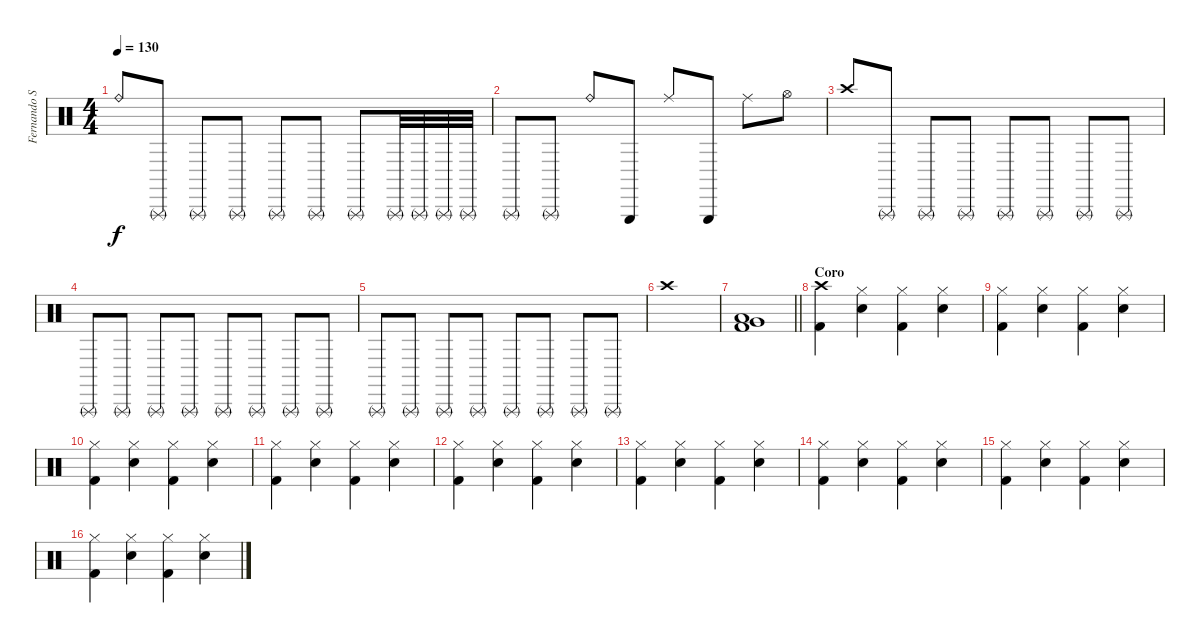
\track ("Fernando Scarcella" "Fernando S") {instrument percussion}
\staff {score}
\articulation defaults
\ts (4 4)
\tempo 130
\clef neutral
\ks c "Ride (bell)".8{dy f} "Triangle (rnute)".8 "Triangle (rnute)".8 "Triangle (rnute)".8 "Triangle (rnute)".8 "Triangle (rnute)".8 "Triangle (rnute)".8 "Triangle (rnute)".32 "Triangle (rnute)".32 "Triangle (rnute)".32 "Triangle (rnute)".32
|
"Triangle (rnute)".8 "Triangle (rnute)".8 "Ride (bell)".8 "Triangle (hit)".8 "Ride (middle)".8 "Triangle (hit)".8 "Ride (middle)".8 "Hi-Hat (open)".8 |
"Crash high (hit)".8 "Triangle (rnute)".8 "Triangle (rnute)".8 "Triangle (rnute)".8 "Triangle (rnute)".8 "Triangle (rnute)".8 "Triangle (rnute)".8 "Triangle (rnute)".8 |
"Triangle (rnute)".8 "Triangle (rnute)".8 "Triangle (rnute)".8 "Triangle (rnute)".8 "Triangle (rnute)".8 "Triangle (rnute)".8 "Triangle (rnute)".8 "Triangle (rnute)".8 |
"Triangle (rnute)".8 "Triangle (rnute)".8 "Triangle (rnute)".8 "Triangle (rnute)".8 "Triangle (rnute)".8 "Triangle (rnute)".8 "Triangle (rnute)".8 "Triangle (rnute)".8 |
"Crash high (hit)".1{volume 16} |
\barLineRight lightlight
("Very Low Tom (hit)" "Low Floor Tom (hit)" "Kick (hit) 2").1 |
\section ("" "Coro")
("Crash high (hit)" "Kick (hit) 2").4 ("Hi-Hat (closed)" "Snare (hit) 2").4 ("Hi-Hat (closed)" "Kick (hit) 2").4 ("Hi-Hat (closed)" "Snare (hit) 2").4 |
("Hi-Hat (closed)" "Kick (hit) 2").4 ("Hi-Hat (closed)" "Snare (hit) 2").4 ("Hi-Hat (closed)" "Kick (hit) 2").4 ("Hi-Hat (closed)" "Snare (hit) 2").4 |
("Hi-Hat (closed)" "Kick (hit) 2").4 ("Hi-Hat (closed)" "Snare (hit) 2").4 ("Hi-Hat (closed)" "Kick (hit) 2").4 ("Hi-Hat (closed)" "Snare (hit) 2").4 |
("Hi-Hat (closed)" "Kick (hit) 2").4 ("Hi-Hat (closed)" "Snare (hit) 2").4 ("Hi-Hat (closed)" "Kick (hit) 2").4 ("Hi-Hat (closed)" "Snare (hit) 2").4 |
("Hi-Hat (closed)" "Kick (hit) 2").4 ("Hi-Hat (closed)" "Snare (hit) 2").4 ("Hi-Hat (closed)" "Kick (hit) 2").4 ("Hi-Hat (closed)" "Snare (hit) 2").4 |
("Hi-Hat (closed)" "Kick (hit) 2").4 ("Hi-Hat (closed)" "Snare (hit) 2").4 ("Hi-Hat (closed)" "Kick (hit) 2").4 ("Hi-Hat (closed)" "Snare (hit) 2").4 |
("Hi-Hat (closed)" "Kick (hit) 2").4 ("Hi-Hat (closed)" "Snare (hit) 2").4 ("Hi-Hat (closed)" "Kick (hit) 2").4 ("Hi-Hat (closed)" "Snare (hit) 2").4 |
("Hi-Hat (closed)" "Kick (hit) 2").4 ("Hi-Hat (closed)" "Snare (hit) 2").4 ("Hi-Hat (closed)" "Kick (hit) 2").4 ("Hi-Hat (closed)" "Snare (hit) 2").4 |
("Hi-Hat (closed)" "Kick (hit) 2").4 ("Hi-Hat (closed)" "Snare (hit) 2").4 ("Hi-Hat (closed)" "Kick (hit) 2").4 ("Hi-Hat (closed)" "Snare (hit) 2").4
